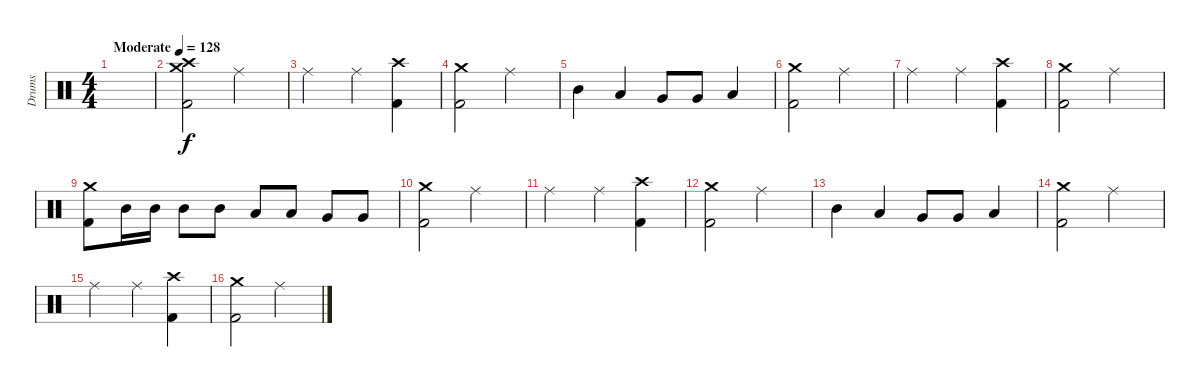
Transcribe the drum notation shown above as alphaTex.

\track ("Drums" "Drums") {instrument percussion}
\staff {score}
\articulation defaults
\ts (4 4)
\tempo (128 "Moderate")
\clef neutral
\ks c
|
("Crash medium (hit)" "Crash high (hit)" "Kick (hit) 2").2 "Ride (middle)".2{dy f} |
"Ride (middle)".2 "Ride (middle)".4 ("Crash high (hit)" "Kick (hit) 2").4 |
("Crash medium (hit)" "Kick (hit) 2").2 "Ride (middle)".2 |
"Mid Tom (hit)".4 "Low Tom (hit)".4 "Very Low Tom (hit)".8 "Very Low Tom (hit)".8 "Low Floor Tom (hit)".4 |
("Crash medium (hit)" "Kick (hit) 2").2 "Ride (middle)".2 |
"Ride (middle)".2 "Ride (middle)".4 ("Crash high (hit)" "Kick (hit) 2").4 |
("Crash medium (hit)" "Kick (hit) 2").2 "Ride (middle)".2 |
("Crash medium (hit)" "Kick (hit) 2").8 "Mid Tom (hit)".16 "Mid Tom (hit)".16 "Mid Tom (hit)".8 "Mid Tom (hit)".8 "Low Tom (hit)".8 "Low Tom (hit)".8 "Very Low Tom (hit)".8 "Very Low Tom (hit)".8 |
("Crash medium (hit)" "Kick (hit) 2").2 "Ride (middle)".2 |
"Ride (middle)".2 "Ride (middle)".4 ("Crash high (hit)" "Kick (hit) 2").4 |
("Crash medium (hit)" "Kick (hit) 2").2 "Ride (middle)".2 |
"Mid Tom (hit)".4 "Low Tom (hit)".4 "Very Low Tom (hit)".8 "Very Low Tom (hit)".8 "Low Floor Tom (hit)".4 |
("Crash medium (hit)" "Kick (hit) 2").2 "Ride (middle)".2 |
"Ride (middle)".2 "Ride (middle)".4 ("Crash high (hit)" "Kick (hit) 2").4 |
("Crash medium (hit)" "Kick (hit) 2").2 "Ride (middle)".2
